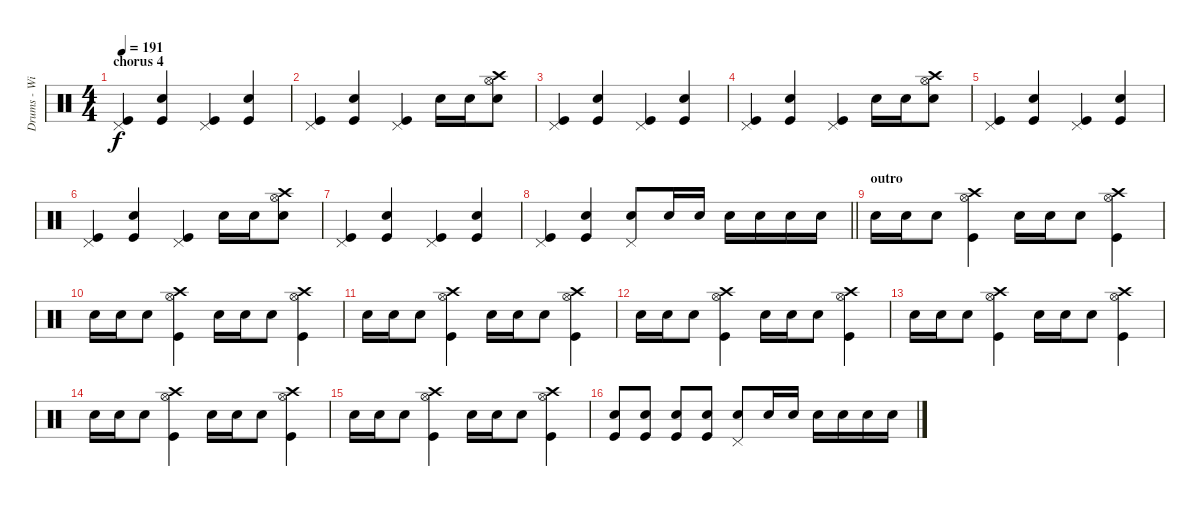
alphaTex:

\track ("Drums - Willie Buchan" "Drums - Wi") {instrument percussion}
\staff {score}
\articulation defaults
\ts (4 4)
\section ("" "chorus 4")
\tempo 191
\clef neutral
\ks c
("Kick (hit)" "Pedal Hi-Hat (hit)").4{dy f} ("Kick (hit)" "Snare (hit) 2").4 ("Kick (hit)" "Pedal Hi-Hat (hit)").4 ("Kick (hit)" "Snare (hit) 2").4 |
("Kick (hit)" "Pedal Hi-Hat (hit)").4 ("Kick (hit)" "Snare (hit) 2").4 ("Kick (hit)" "Pedal Hi-Hat (hit)").4 "Snare (hit) 2".16 "Snare (hit) 2".16 ("Snare (hit) 2" "Hi-Hat (open)" "Crash high (hit)").8 |
("Kick (hit)" "Pedal Hi-Hat (hit)").4 ("Kick (hit)" "Snare (hit) 2").4 ("Kick (hit)" "Pedal Hi-Hat (hit)").4 ("Kick (hit)" "Snare (hit) 2").4 |
("Kick (hit)" "Pedal Hi-Hat (hit)").4 ("Kick (hit)" "Snare (hit) 2").4 ("Kick (hit)" "Pedal Hi-Hat (hit)").4 "Snare (hit) 2".16 "Snare (hit) 2".16 ("Snare (hit) 2" "Hi-Hat (open)" "Crash high (hit)").8 |
("Kick (hit)" "Pedal Hi-Hat (hit)").4 ("Kick (hit)" "Snare (hit) 2").4 ("Kick (hit)" "Pedal Hi-Hat (hit)").4 ("Kick (hit)" "Snare (hit) 2").4 |
("Kick (hit)" "Pedal Hi-Hat (hit)").4 ("Kick (hit)" "Snare (hit) 2").4 ("Kick (hit)" "Pedal Hi-Hat (hit)").4 "Snare (hit) 2".16 "Snare (hit) 2".16 ("Snare (hit) 2" "Hi-Hat (open)" "Crash high (hit)").8 |
("Kick (hit)" "Pedal Hi-Hat (hit)").4 ("Kick (hit)" "Snare (hit) 2").4 ("Kick (hit)" "Pedal Hi-Hat (hit)").4 ("Kick (hit)" "Snare (hit) 2").4 |
\barLineRight lightlight
("Kick (hit)" "Pedal Hi-Hat (hit)").4 ("Kick (hit)" "Snare (hit) 2").4 ("Snare (hit) 2" "Pedal Hi-Hat (hit)").8 "Snare (hit) 2".16 "Snare (hit) 2".16 "Snare (hit) 2".16 "Snare (hit) 2".16 "Snare (hit) 2".16 "Snare (hit) 2".16 |
\section ("" "outro")
"Snare (hit) 2".16 "Snare (hit) 2".16 "Snare (hit) 2".8 ("Kick (hit)" "Hi-Hat (open)" "Crash high (hit)").4 "Snare (hit) 2".16 "Snare (hit) 2".16 "Snare (hit) 2".8 ("Kick (hit)" "Hi-Hat (open)" "Crash high (hit)").4 |
"Snare (hit) 2".16 "Snare (hit) 2".16 "Snare (hit) 2".8 ("Kick (hit)" "Hi-Hat (open)" "Crash high (hit)").4 "Snare (hit) 2".16 "Snare (hit) 2".16 "Snare (hit) 2".8 ("Kick (hit)" "Hi-Hat (open)" "Crash high (hit)").4 |
"Snare (hit) 2".16 "Snare (hit) 2".16 "Snare (hit) 2".8 ("Kick (hit)" "Hi-Hat (open)" "Crash high (hit)").4 "Snare (hit) 2".16 "Snare (hit) 2".16 "Snare (hit) 2".8 ("Kick (hit)" "Hi-Hat (open)" "Crash high (hit)").4 |
"Snare (hit) 2".16 "Snare (hit) 2".16 "Snare (hit) 2".8 ("Kick (hit)" "Hi-Hat (open)" "Crash high (hit)").4 "Snare (hit) 2".16 "Snare (hit) 2".16 "Snare (hit) 2".8 ("Kick (hit)" "Hi-Hat (open)" "Crash high (hit)").4 |
"Snare (hit) 2".16 "Snare (hit) 2".16 "Snare (hit) 2".8 ("Kick (hit)" "Hi-Hat (open)" "Crash high (hit)").4 "Snare (hit) 2".16 "Snare (hit) 2".16 "Snare (hit) 2".8 ("Kick (hit)" "Hi-Hat (open)" "Crash high (hit)").4 |
"Snare (hit) 2".16 "Snare (hit) 2".16 "Snare (hit) 2".8 ("Kick (hit)" "Hi-Hat (open)" "Crash high (hit)").4 "Snare (hit) 2".16 "Snare (hit) 2".16 "Snare (hit) 2".8 ("Kick (hit)" "Hi-Hat (open)" "Crash high (hit)").4 |
"Snare (hit) 2".16 "Snare (hit) 2".16 "Snare (hit) 2".8 ("Kick (hit)" "Hi-Hat (open)" "Crash high (hit)").4 "Snare (hit) 2".16 "Snare (hit) 2".16 "Snare (hit) 2".8 ("Kick (hit)" "Hi-Hat (open)" "Crash high (hit)").4 |
("Kick (hit)" "Snare (hit) 2").8 ("Kick (hit)" "Snare (hit) 2").8 ("Kick (hit)" "Snare (hit) 2").8 ("Kick (hit)" "Snare (hit) 2").8 ("Snare (hit) 2" "Pedal Hi-Hat (hit)").8 "Snare (hit) 2".16 "Snare (hit) 2".16 "Snare (hit) 2".16 "Snare (hit) 2".16 "Snare (hit) 2".16 "Snare (hit) 2".16
